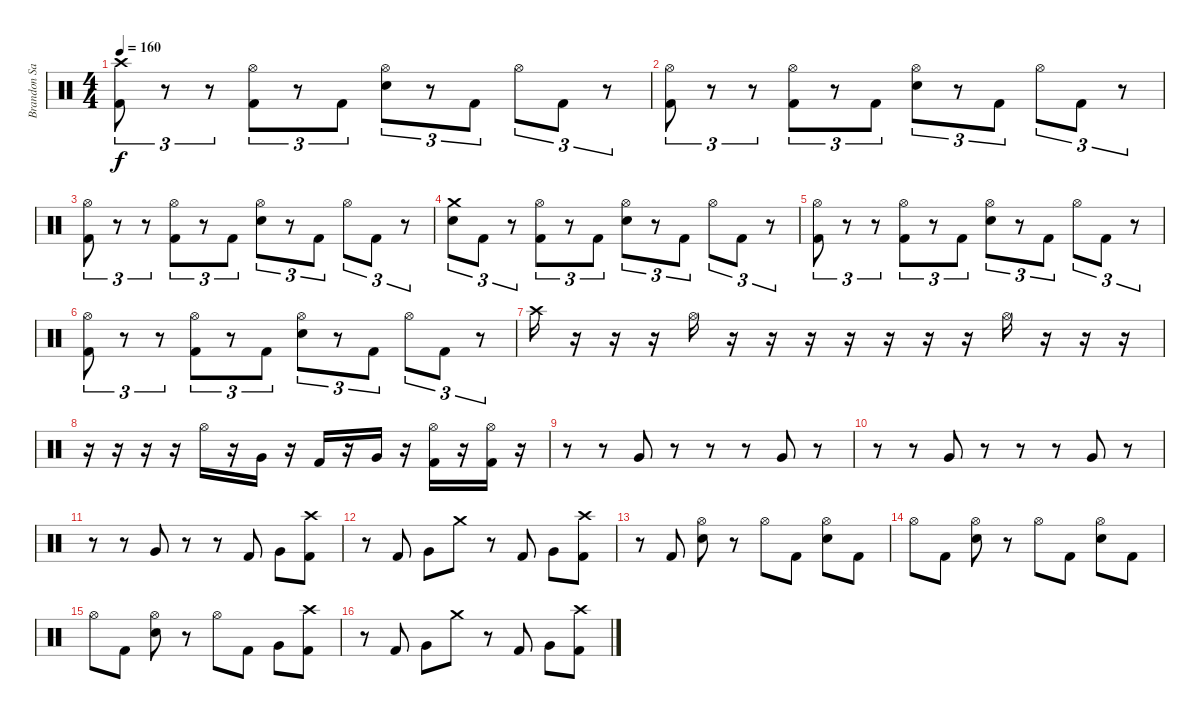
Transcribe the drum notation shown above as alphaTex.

\track ("Brandon Saller" "Brandon Sa") {instrument percussion}
\staff {score}
\articulation defaults
\ts (4 4)
\tempo 160
\clef neutral
\ks c
("Crash high (hit)" "Kick (hit) 2").8{tu (3 2) dy f} r.8{tu (3 2)} r.8{tu (3 2)} ("Hi-Hat (open)" "Kick (hit) 2").8{tu (3 2)} r.8{tu (3 2)} "Kick (hit) 2".8{tu (3 2)} ("Hi-Hat (open)" "Snare (hit) 2").8{tu (3 2)} r.8{tu (3 2)} "Kick (hit) 2".8{tu (3 2)} "Hi-Hat (open)".8{tu (3 2)} "Kick (hit) 2".8{tu (3 2)} r.8{tu (3 2)} |
("Hi-Hat (open)" "Kick (hit) 2").8{tu (3 2)} r.8{tu (3 2)} r.8{tu (3 2)} ("Hi-Hat (open)" "Kick (hit) 2").8{tu (3 2)} r.8{tu (3 2)} "Kick (hit) 2".8{tu (3 2)} ("Hi-Hat (open)" "Snare (hit) 2").8{tu (3 2)} r.8{tu (3 2)} "Kick (hit) 2".8{tu (3 2)} "Hi-Hat (open)".8{tu (3 2)} "Kick (hit) 2".8{tu (3 2)} r.8{tu (3 2)} |
("Hi-Hat (open)" "Kick (hit) 2").8{tu (3 2)} r.8{tu (3 2)} r.8{tu (3 2)} ("Hi-Hat (open)" "Kick (hit) 2").8{tu (3 2)} r.8{tu (3 2)} "Kick (hit) 2".8{tu (3 2)} ("Hi-Hat (open)" "Snare (hit) 2").8{tu (3 2)} r.8{tu (3 2)} "Kick (hit) 2".8{tu (3 2)} "Hi-Hat (open)".8{tu (3 2)} "Kick (hit) 2".8{tu (3 2)} r.8{tu (3 2)} |
("Crash medium (hit)" "Snare (hit) 2").8{tu (3 2)} "Kick (hit) 2".8{tu (3 2)} r.8{tu (3 2)} ("Hi-Hat (open)" "Kick (hit) 2").8{tu (3 2)} r.8{tu (3 2)} "Kick (hit) 2".8{tu (3 2)} ("Hi-Hat (open)" "Snare (hit) 2").8{tu (3 2)} r.8{tu (3 2)} "Kick (hit) 2".8{tu (3 2)} "Hi-Hat (open)".8{tu (3 2)} "Kick (hit) 2".8{tu (3 2)} r.8{tu (3 2)} |
("Hi-Hat (open)" "Kick (hit) 2").8{tu (3 2)} r.8{tu (3 2)} r.8{tu (3 2)} ("Hi-Hat (open)" "Kick (hit) 2").8{tu (3 2)} r.8{tu (3 2)} "Kick (hit) 2".8{tu (3 2)} ("Hi-Hat (open)" "Snare (hit) 2").8{tu (3 2)} r.8{tu (3 2)} "Kick (hit) 2".8{tu (3 2)} "Hi-Hat (open)".8{tu (3 2)} "Kick (hit) 2".8{tu (3 2)} r.8{tu (3 2)} |
("Hi-Hat (open)" "Kick (hit) 2").8{tu (3 2)} r.8{tu (3 2)} r.8{tu (3 2)} ("Hi-Hat (open)" "Kick (hit) 2").8{tu (3 2)} r.8{tu (3 2)} "Kick (hit) 2".8{tu (3 2)} ("Hi-Hat (open)" "Snare (hit) 2").8{tu (3 2)} r.8{tu (3 2)} "Kick (hit) 2".8{tu (3 2)} "Hi-Hat (open)".8{tu (3 2)} "Kick (hit) 2".8{tu (3 2)} r.8{tu (3 2)} |
"Crash high (hit)".16 r.16 r.16 r.16 "Hi-Hat (open)".16 r.16 r.16 r.16 r.16 r.16 r.16 r.16 "Hi-Hat (open)".16 r.16 r.16 r.16 |
r.16 r.16 r.16 r.16 "Hi-Hat (open)".16 r.16 "Very Low Tom (hit)".16 r.16 "Kick (hit) 2".16 r.16 "Very Low Tom (hit)".16 r.16 ("Hi-Hat (open)" "Kick (hit) 2").16 r.16 ("Hi-Hat (open)" "Kick (hit) 2").16 r.16 |
r.8 r.8 "Very Low Tom (hit)".8 r.8 r.8 r.8 "Very Low Tom (hit)".8 r.8 |
r.8 r.8 "Very Low Tom (hit)".8 r.8 r.8 r.8 "Very Low Tom (hit)".8 r.8 |
r.8 r.8 "Very Low Tom (hit)".8 r.8 r.8 "Kick (hit) 2".8 "Very Low Tom (hit)".8 ("Crash high (hit)" "Kick (hit) 2").8 |
r.8 "Kick (hit) 2".8 "Very Low Tom (hit)".8 "Crash medium (hit)".8 r.8 "Kick (hit) 2".8 "Very Low Tom (hit)".8 ("Crash high (hit)" "Kick (hit) 2").8 |
r.8 "Kick (hit) 2".8 ("Hi-Hat (open)" "Snare (hit) 2").8 r.8 "Hi-Hat (open)".8 "Kick (hit) 2".8 ("Hi-Hat (open)" "Snare (hit) 2").8 "Kick (hit) 2".8 |
"Hi-Hat (open)".8 "Kick (hit) 2".8 ("Hi-Hat (open)" "Snare (hit) 2").8 r.8 "Hi-Hat (open)".8 "Kick (hit) 2".8 ("Hi-Hat (open)" "Snare (hit) 2").8 "Kick (hit) 2".8 |
"Hi-Hat (open)".8 "Kick (hit) 2".8 ("Hi-Hat (open)" "Snare (hit) 2").8 r.8 "Hi-Hat (open)".8 "Kick (hit) 2".8 "Very Low Tom (hit)".8 ("Crash high (hit)" "Kick (hit) 2").8 |
r.8 "Kick (hit) 2".8 "Very Low Tom (hit)".8 "Crash medium (hit)".8 r.8 "Kick (hit) 2".8 "Very Low Tom (hit)".8 ("Crash high (hit)" "Kick (hit) 2").8
